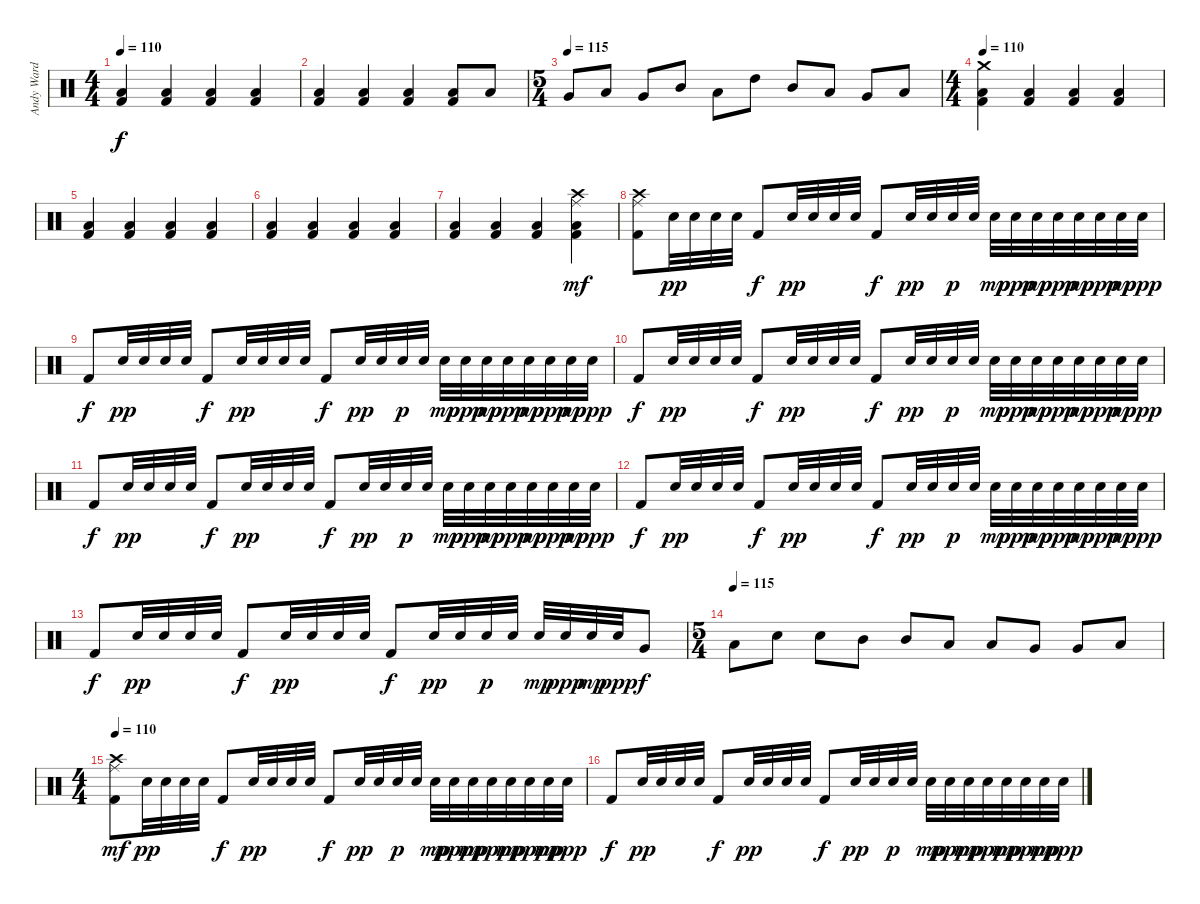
\track ("Andy Ward - Drums" "Andy Ward ") {instrument percussion}
\staff {score}
\articulation defaults
\ts (4 4)
\tempo 110
\clef neutral
\ks c
("Low Floor Tom (hit)" "Kick (hit) 2").4{dy f} ("Low Floor Tom (hit)" "Kick (hit) 2").4 ("Low Floor Tom (hit)" "Kick (hit) 2").4 ("Low Floor Tom (hit)" "Kick (hit) 2").4 |
("Low Floor Tom (hit)" "Kick (hit) 2").4 ("Low Floor Tom (hit)" "Kick (hit) 2").4 ("Low Floor Tom (hit)" "Kick (hit) 2").4 ("Low Floor Tom (hit)" "Kick (hit) 2").8 "Low Tom (hit)".8 |
\ts (5 4)
\tempo (115)
"Very Low Tom (hit)".8 "Low Tom (hit)".8 "Very Low Tom (hit)".8 "Mid Tom (hit)".8 "Low Tom (hit)".8 "High Tom (hit)".8 "Mid Tom (hit)".8 "Low Tom (hit)".8 "Very Low Tom (hit)".8 "Low Floor Tom (hit)".8 |
\ts (4 4)
\tempo 110
("Crash medium (hit)" "Low Floor Tom (hit)" "Kick (hit) 2").4 ("Low Floor Tom (hit)" "Kick (hit) 2").4 ("Low Floor Tom (hit)" "Kick (hit) 2").4 ("Low Floor Tom (hit)" "Kick (hit) 2").4 |
("Low Floor Tom (hit)" "Kick (hit) 2").4 ("Low Floor Tom (hit)" "Kick (hit) 2").4 ("Low Floor Tom (hit)" "Kick (hit) 2").4 ("Low Floor Tom (hit)" "Kick (hit) 2").4 |
("Low Floor Tom (hit)" "Kick (hit) 2").4 ("Low Floor Tom (hit)" "Kick (hit) 2").4 ("Low Floor Tom (hit)" "Kick (hit) 2").4 ("Low Floor Tom (hit)" "Kick (hit) 2").4 |
("Low Floor Tom (hit)" "Kick (hit) 2").4 ("Low Floor Tom (hit)" "Kick (hit) 2").4 ("Low Floor Tom (hit)" "Kick (hit) 2").4 ("Ride (middle)" "Crash high (hit)" "Low Floor Tom (hit)" "Kick (hit) 2").4{dy mf} |
("Ride (middle)" "Crash high (hit)" "Kick (hit) 2").8 "Electric Snare (hit)".32{dy pp} "Electric Snare (hit)".32 "Electric Snare (hit)".32 "Electric Snare (hit)".32 "Kick (hit) 2".8{dy f} "Electric Snare (hit)".32{dy pp} "Electric Snare (hit)".32 "Electric Snare (hit)".32 "Electric Snare (hit)".32 "Kick (hit) 2".8{dy f} "Electric Snare (hit)".32{dy pp} "Electric Snare (hit)".32 "Electric Snare (hit)".32{dy p} "Electric Snare (hit)".32 "Electric Snare (hit)".32{dy mp} "Electric Snare (hit)".32{dy ppp} "Electric Snare (hit)".32{dy mp} "Electric Snare (hit)".32{dy ppp} "Electric Snare (hit)".32{dy mp} "Electric Snare (hit)".32{dy ppp} "Electric Snare (hit)".32{dy mp} "Electric Snare (hit)".32{dy ppp} |
"Kick (hit) 2".8{dy f} "Electric Snare (hit)".32{dy pp} "Electric Snare (hit)".32 "Electric Snare (hit)".32 "Electric Snare (hit)".32 "Kick (hit) 2".8{dy f} "Electric Snare (hit)".32{dy pp} "Electric Snare (hit)".32 "Electric Snare (hit)".32 "Electric Snare (hit)".32 "Kick (hit) 2".8{dy f} "Electric Snare (hit)".32{dy pp} "Electric Snare (hit)".32 "Electric Snare (hit)".32{dy p} "Electric Snare (hit)".32 "Electric Snare (hit)".32{dy mp} "Electric Snare (hit)".32{dy ppp} "Electric Snare (hit)".32{dy mp} "Electric Snare (hit)".32{dy ppp} "Electric Snare (hit)".32{dy mp} "Electric Snare (hit)".32{dy ppp} "Electric Snare (hit)".32{dy mp} "Electric Snare (hit)".32{dy ppp} |
"Kick (hit) 2".8{dy f} "Electric Snare (hit)".32{dy pp} "Electric Snare (hit)".32 "Electric Snare (hit)".32 "Electric Snare (hit)".32 "Kick (hit) 2".8{dy f} "Electric Snare (hit)".32{dy pp} "Electric Snare (hit)".32 "Electric Snare (hit)".32 "Electric Snare (hit)".32 "Kick (hit) 2".8{dy f} "Electric Snare (hit)".32{dy pp} "Electric Snare (hit)".32 "Electric Snare (hit)".32{dy p} "Electric Snare (hit)".32 "Electric Snare (hit)".32{dy mp} "Electric Snare (hit)".32{dy ppp} "Electric Snare (hit)".32{dy mp} "Electric Snare (hit)".32{dy ppp} "Electric Snare (hit)".32{dy mp} "Electric Snare (hit)".32{dy ppp} "Electric Snare (hit)".32{dy mp} "Electric Snare (hit)".32{dy ppp} |
"Kick (hit) 2".8{dy f} "Electric Snare (hit)".32{dy pp} "Electric Snare (hit)".32 "Electric Snare (hit)".32 "Electric Snare (hit)".32 "Kick (hit) 2".8{dy f} "Electric Snare (hit)".32{dy pp} "Electric Snare (hit)".32 "Electric Snare (hit)".32 "Electric Snare (hit)".32 "Kick (hit) 2".8{dy f} "Electric Snare (hit)".32{dy pp} "Electric Snare (hit)".32 "Electric Snare (hit)".32{dy p} "Electric Snare (hit)".32 "Electric Snare (hit)".32{dy mp} "Electric Snare (hit)".32{dy ppp} "Electric Snare (hit)".32{dy mp} "Electric Snare (hit)".32{dy ppp} "Electric Snare (hit)".32{dy mp} "Electric Snare (hit)".32{dy ppp} "Electric Snare (hit)".32{dy mp} "Electric Snare (hit)".32{dy ppp} |
"Kick (hit) 2".8{dy f} "Electric Snare (hit)".32{dy pp} "Electric Snare (hit)".32 "Electric Snare (hit)".32 "Electric Snare (hit)".32 "Kick (hit) 2".8{dy f} "Electric Snare (hit)".32{dy pp} "Electric Snare (hit)".32 "Electric Snare (hit)".32 "Electric Snare (hit)".32 "Kick (hit) 2".8{dy f} "Electric Snare (hit)".32{dy pp} "Electric Snare (hit)".32 "Electric Snare (hit)".32{dy p} "Electric Snare (hit)".32 "Electric Snare (hit)".32{dy mp} "Electric Snare (hit)".32{dy ppp} "Electric Snare (hit)".32{dy mp} "Electric Snare (hit)".32{dy ppp} "Electric Snare (hit)".32{dy mp} "Electric Snare (hit)".32{dy ppp} "Electric Snare (hit)".32{dy mp} "Electric Snare (hit)".32{dy ppp} |
"Kick (hit) 2".8{dy f} "Electric Snare (hit)".32{dy pp} "Electric Snare (hit)".32 "Electric Snare (hit)".32 "Electric Snare (hit)".32 "Kick (hit) 2".8{dy f} "Electric Snare (hit)".32{dy pp} "Electric Snare (hit)".32 "Electric Snare (hit)".32 "Electric Snare (hit)".32 "Kick (hit) 2".8{dy f} "Electric Snare (hit)".32{dy pp} "Electric Snare (hit)".32 "Electric Snare (hit)".32{dy p} "Electric Snare (hit)".32 "Electric Snare (hit)".32{dy mp} "Electric Snare (hit)".32{dy ppp} "Electric Snare (hit)".32{dy mp} "Electric Snare (hit)".32{dy ppp} "Very Low Tom (hit)".8{dy f} |
\ts (5 4)
\tempo (115)
"Low Tom (hit)".8 "Electric Snare (hit)".8 "Electric Snare (hit)".8 "Mid Tom (hit)".8 "Mid Tom (hit)".8 "Low Tom (hit)".8 "Low Tom (hit)".8 "Very Low Tom (hit)".8 "Very Low Tom (hit)".8 "Low Floor Tom (hit)".8 |
\ts (4 4)
\tempo 110
("Ride (middle)" "Crash high (hit)" "Kick (hit) 2").8{dy mf} "Electric Snare (hit)".32{dy pp} "Electric Snare (hit)".32 "Electric Snare (hit)".32 "Electric Snare (hit)".32 "Kick (hit) 2".8{dy f} "Electric Snare (hit)".32{dy pp} "Electric Snare (hit)".32 "Electric Snare (hit)".32 "Electric Snare (hit)".32 "Kick (hit) 2".8{dy f} "Electric Snare (hit)".32{dy pp} "Electric Snare (hit)".32 "Electric Snare (hit)".32{dy p} "Electric Snare (hit)".32 "Electric Snare (hit)".32{dy mp} "Electric Snare (hit)".32{dy ppp} "Electric Snare (hit)".32{dy mp} "Electric Snare (hit)".32{dy ppp} "Electric Snare (hit)".32{dy mp} "Electric Snare (hit)".32{dy ppp} "Electric Snare (hit)".32{dy mp} "Electric Snare (hit)".32{dy ppp} |
"Kick (hit) 2".8{dy f} "Electric Snare (hit)".32{dy pp} "Electric Snare (hit)".32 "Electric Snare (hit)".32 "Electric Snare (hit)".32 "Kick (hit) 2".8{dy f} "Electric Snare (hit)".32{dy pp} "Electric Snare (hit)".32 "Electric Snare (hit)".32 "Electric Snare (hit)".32 "Kick (hit) 2".8{dy f} "Electric Snare (hit)".32{dy pp} "Electric Snare (hit)".32 "Electric Snare (hit)".32{dy p} "Electric Snare (hit)".32 "Electric Snare (hit)".32{dy mp} "Electric Snare (hit)".32{dy ppp} "Electric Snare (hit)".32{dy mp} "Electric Snare (hit)".32{dy ppp} "Electric Snare (hit)".32{dy mp} "Electric Snare (hit)".32{dy ppp} "Electric Snare (hit)".32{dy mp} "Electric Snare (hit)".32{dy ppp}
